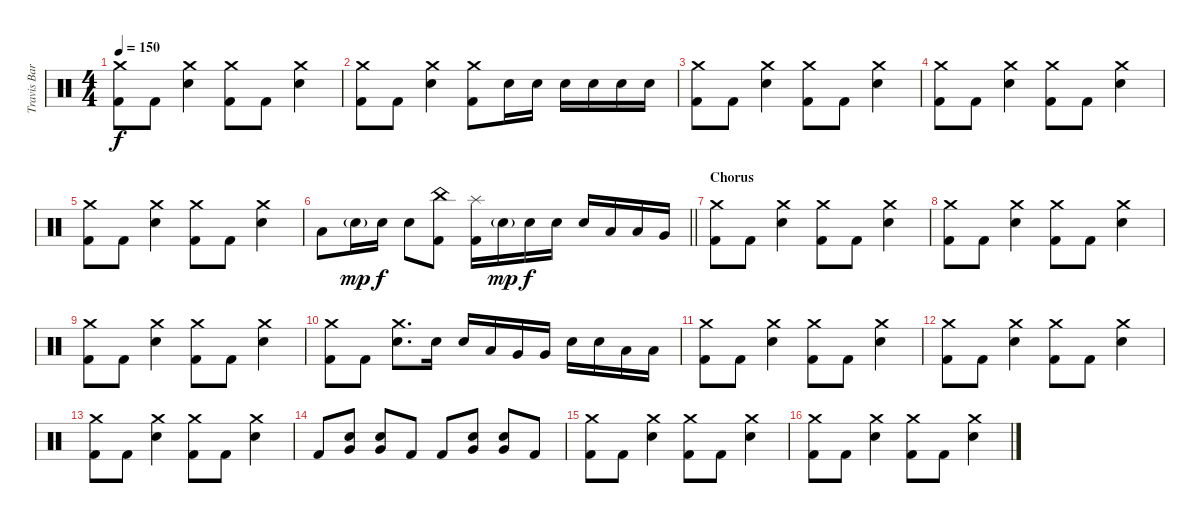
\track ("Travis Barker - Drums" "Travis Bar") {instrument percussion}
\staff {score}
\articulation defaults
\ts (4 4)
\tempo 150
\clef neutral
\ks c
("Crash medium (hit)" "Kick (hit) 2").8{dy f} "Kick (hit) 2".8 ("Crash medium (hit)" "Electric Snare (hit)").4 ("Crash medium (hit)" "Kick (hit) 2").8 "Kick (hit) 2".8 ("Crash medium (hit)" "Electric Snare (hit)").4 |
("Crash medium (hit)" "Kick (hit) 2").8 "Kick (hit) 2".8 ("Crash medium (hit)" "Electric Snare (hit)").4 ("Crash medium (hit)" "Kick (hit) 2").8 "Electric Snare (hit)".16 "Electric Snare (hit)".16 "Electric Snare (hit)".16 "Electric Snare (hit)".16 "Electric Snare (hit)".16 "Electric Snare (hit)".16 |
("Crash medium (hit)" "Kick (hit) 2").8 "Kick (hit) 2".8 ("Crash medium (hit)" "Electric Snare (hit)").4 ("Crash medium (hit)" "Kick (hit) 2").8 "Kick (hit) 2".8 ("Crash medium (hit)" "Electric Snare (hit)").4 |
("Crash medium (hit)" "Kick (hit) 2").8 "Kick (hit) 2".8 ("Crash medium (hit)" "Electric Snare (hit)").4 ("Crash medium (hit)" "Kick (hit) 2").8 "Kick (hit) 2".8 ("Crash medium (hit)" "Electric Snare (hit)").4 |
("Crash medium (hit)" "Kick (hit) 2").8 "Kick (hit) 2".8 ("Crash medium (hit)" "Electric Snare (hit)").4 ("Crash medium (hit)" "Kick (hit) 2").8 "Kick (hit) 2".8 ("Crash medium (hit)" "Electric Snare (hit)").4 |
\barLineRight lightlight "Low Tom (hit)".8 "Electric Snare (hit)"{g}.16{dy mp} "Electric Snare (hit)".16{dy f} "Electric Snare (hit)".8
("China (hit)" "Kick (hit) 2").8 ("Splash (hit)" "Kick (hit) 2").16 "Electric Snare (hit)"{g}.16{dy mp} "Electric Snare (hit)".16{dy f} "Electric Snare (hit)".16 "Electric Snare (hit)".16 "Low Tom (hit)".16 "Low Tom (hit)".16 "Very Low Tom (hit)".16 |
\section ("" "Chorus")
("Crash medium (hit)" "Kick (hit) 2").8 "Kick (hit) 2".8 ("Crash medium (hit)" "Electric Snare (hit)").4 ("Crash medium (hit)" "Kick (hit) 2").8 "Kick (hit) 2".8 ("Crash medium (hit)" "Electric Snare (hit)").4 |
("Crash medium (hit)" "Kick (hit) 2").8 "Kick (hit) 2".8 ("Crash medium (hit)" "Electric Snare (hit)").4 ("Crash medium (hit)" "Kick (hit) 2").8 "Kick (hit) 2".8 ("Crash medium (hit)" "Electric Snare (hit)").4 |
("Crash medium (hit)" "Kick (hit) 2").8 "Kick (hit) 2".8 ("Crash medium (hit)" "Electric Snare (hit)").4 ("Crash medium (hit)" "Kick (hit) 2").8 "Kick (hit) 2".8 ("Crash medium (hit)" "Electric Snare (hit)").4 |
("Crash medium (hit)" "Kick (hit) 2").8 "Kick (hit) 2".8 ("Crash medium (hit)" "Electric Snare (hit)").8{d} "Electric Snare (hit)".16 "Electric Snare (hit)".16 "Low Tom (hit)".16 "Very Low Tom (hit)".16 "Very Low Tom (hit)".16 "Electric Snare (hit)".16 "Electric Snare (hit)".16 "Low Tom (hit)".16 "Low Tom (hit)".16 |
("Crash medium (hit)" "Kick (hit) 2").8 "Kick (hit) 2".8 ("Crash medium (hit)" "Electric Snare (hit)").4 ("Crash medium (hit)" "Kick (hit) 2").8 "Kick (hit) 2".8 ("Crash medium (hit)" "Electric Snare (hit)").4 |
("Crash medium (hit)" "Kick (hit) 2").8 "Kick (hit) 2".8 ("Crash medium (hit)" "Electric Snare (hit)").4 ("Crash medium (hit)" "Kick (hit) 2").8 "Kick (hit) 2".8 ("Crash medium (hit)" "Electric Snare (hit)").4 |
("Crash medium (hit)" "Kick (hit) 2").8 "Kick (hit) 2".8 ("Crash medium (hit)" "Electric Snare (hit)").4 ("Crash medium (hit)" "Kick (hit) 2").8 "Kick (hit) 2".8 ("Crash medium (hit)" "Electric Snare (hit)").4 |
"Kick (hit) 2".8 ("Electric Snare (hit)" "Very Low Tom (hit)").8 ("Electric Snare (hit)" "Very Low Tom (hit)").8 "Kick (hit) 2".8 "Kick (hit) 2".8 ("Electric Snare (hit)" "Very Low Tom (hit)").8 ("Electric Snare (hit)" "Very Low Tom (hit)").8 "Kick (hit) 2".8 |
("Crash medium (hit)" "Kick (hit) 2").8 "Kick (hit) 2".8 ("Crash medium (hit)" "Electric Snare (hit)").4 ("Crash medium (hit)" "Kick (hit) 2").8 "Kick (hit) 2".8 ("Crash medium (hit)" "Electric Snare (hit)").4 |
("Crash medium (hit)" "Kick (hit) 2").8 "Kick (hit) 2".8 ("Crash medium (hit)" "Electric Snare (hit)").4 ("Crash medium (hit)" "Kick (hit) 2").8 "Kick (hit) 2".8 ("Crash medium (hit)" "Electric Snare (hit)").4
